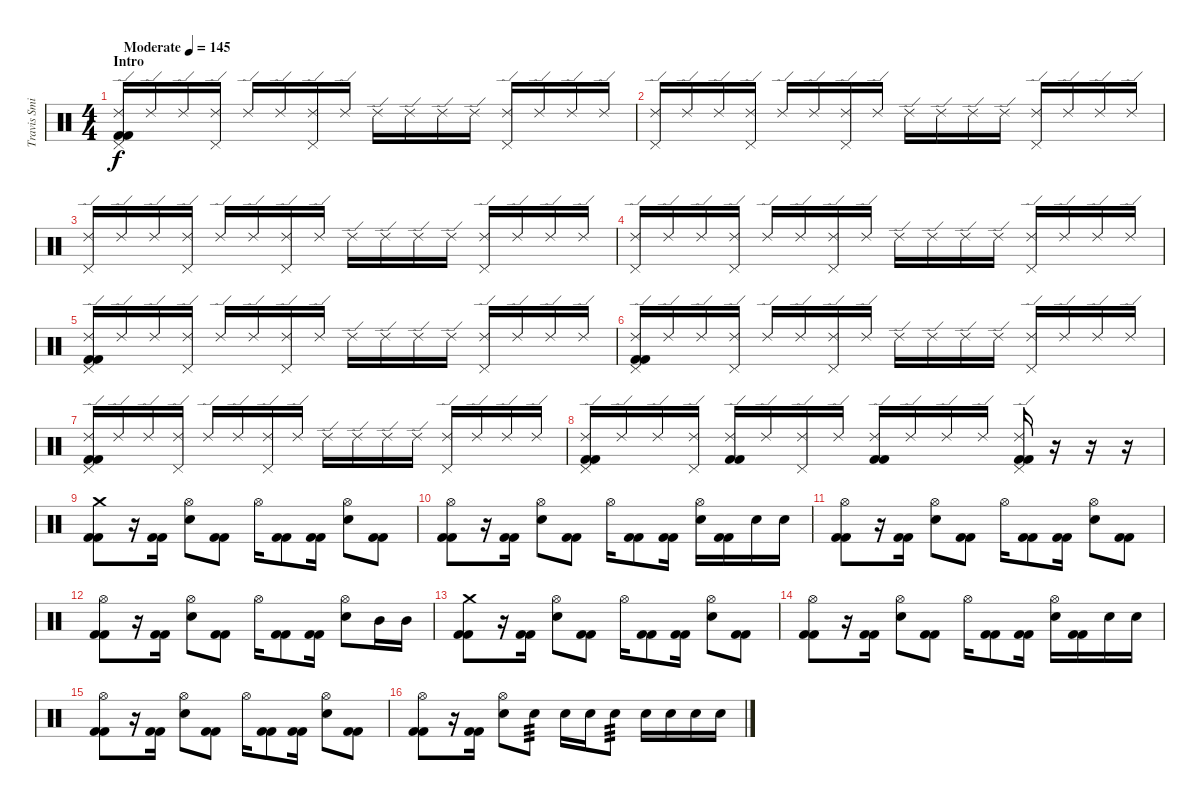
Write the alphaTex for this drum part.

\track ("Travis Smith" "Travis Smi") {instrument percussion}
\staff {score}
\articulation defaults
\ts (4 4)
\section ("" "Intro")
\tempo (145 "Moderate")
\clef neutral
\ks c
("Ride (edge) 2" "Pedal Hi-Hat (hit)" "Kick (hit) 2" "Kick (hit) 2").16{dy f} "Ride (edge) 2".16 "Ride (edge) 2".16 ("Ride (edge) 2" "Pedal Hi-Hat (hit)").16 "Ride (edge) 2".16 "Ride (edge) 2".16 ("Ride (edge) 2" "Pedal Hi-Hat (hit)").16 "Ride (edge) 2".16 "Ride (edge) 2".16 "Ride (edge) 2".16 "Ride (edge) 2".16 "Ride (edge) 2".16 ("Ride (edge) 2" "Pedal Hi-Hat (hit)").16 "Ride (edge) 2".16 "Ride (edge) 2".16 "Ride (edge) 2".16 |
("Ride (edge) 2" "Pedal Hi-Hat (hit)").16 "Ride (edge) 2".16 "Ride (edge) 2".16 ("Ride (edge) 2" "Pedal Hi-Hat (hit)").16 "Ride (edge) 2".16 "Ride (edge) 2".16 ("Ride (edge) 2" "Pedal Hi-Hat (hit)").16 "Ride (edge) 2".16 "Ride (edge) 2".16 "Ride (edge) 2".16 "Ride (edge) 2".16 "Ride (edge) 2".16 ("Ride (edge) 2" "Pedal Hi-Hat (hit)").16 "Ride (edge) 2".16 "Ride (edge) 2".16 "Ride (edge) 2".16 |
("Ride (edge) 2" "Pedal Hi-Hat (hit)").16 "Ride (edge) 2".16 "Ride (edge) 2".16 ("Ride (edge) 2" "Pedal Hi-Hat (hit)").16 "Ride (edge) 2".16 "Ride (edge) 2".16 ("Ride (edge) 2" "Pedal Hi-Hat (hit)").16 "Ride (edge) 2".16 "Ride (edge) 2".16 "Ride (edge) 2".16 "Ride (edge) 2".16 "Ride (edge) 2".16 ("Ride (edge) 2" "Pedal Hi-Hat (hit)").16 "Ride (edge) 2".16 "Ride (edge) 2".16 "Ride (edge) 2".16 |
("Ride (edge) 2" "Pedal Hi-Hat (hit)").16 "Ride (edge) 2".16 "Ride (edge) 2".16 ("Ride (edge) 2" "Pedal Hi-Hat (hit)").16 "Ride (edge) 2".16 "Ride (edge) 2".16 ("Ride (edge) 2" "Pedal Hi-Hat (hit)").16 "Ride (edge) 2".16 "Ride (edge) 2".16 "Ride (edge) 2".16 "Ride (edge) 2".16 "Ride (edge) 2".16 ("Ride (edge) 2" "Pedal Hi-Hat (hit)").16 "Ride (edge) 2".16 "Ride (edge) 2".16 "Ride (edge) 2".16 |
("Ride (edge) 2" "Pedal Hi-Hat (hit)" "Kick (hit) 2" "Kick (hit) 2").16 "Ride (edge) 2".16 "Ride (edge) 2".16 ("Ride (edge) 2" "Pedal Hi-Hat (hit)").16 "Ride (edge) 2".16 "Ride (edge) 2".16 ("Ride (edge) 2" "Pedal Hi-Hat (hit)").16 "Ride (edge) 2".16 "Ride (edge) 2".16 "Ride (edge) 2".16 "Ride (edge) 2".16 "Ride (edge) 2".16 ("Ride (edge) 2" "Pedal Hi-Hat (hit)").16 "Ride (edge) 2".16 "Ride (edge) 2".16 "Ride (edge) 2".16 |
("Ride (edge) 2" "Pedal Hi-Hat (hit)" "Kick (hit) 2" "Kick (hit) 2").16 "Ride (edge) 2".16 "Ride (edge) 2".16 ("Ride (edge) 2" "Pedal Hi-Hat (hit)").16 "Ride (edge) 2".16 "Ride (edge) 2".16 ("Ride (edge) 2" "Pedal Hi-Hat (hit)").16 "Ride (edge) 2".16 "Ride (edge) 2".16 "Ride (edge) 2".16 "Ride (edge) 2".16 "Ride (edge) 2".16 ("Ride (edge) 2" "Pedal Hi-Hat (hit)").16 "Ride (edge) 2".16 "Ride (edge) 2".16 "Ride (edge) 2".16 |
("Ride (edge) 2" "Pedal Hi-Hat (hit)" "Kick (hit) 2" "Kick (hit) 2").16 "Ride (edge) 2".16 "Ride (edge) 2".16 ("Ride (edge) 2" "Pedal Hi-Hat (hit)").16 "Ride (edge) 2".16 "Ride (edge) 2".16 ("Ride (edge) 2" "Pedal Hi-Hat (hit)").16 "Ride (edge) 2".16 "Ride (edge) 2".16 "Ride (edge) 2".16 "Ride (edge) 2".16 "Ride (edge) 2".16 ("Ride (edge) 2" "Pedal Hi-Hat (hit)").16 "Ride (edge) 2".16 "Ride (edge) 2".16 "Ride (edge) 2".16 |
("Ride (edge) 2" "Pedal Hi-Hat (hit)" "Kick (hit) 2" "Kick (hit) 2").16 "Ride (edge) 2".16 "Ride (edge) 2".16 ("Ride (edge) 2" "Pedal Hi-Hat (hit)").16 ("Ride (edge) 2" "Kick (hit) 2" "Kick (hit) 2").16 "Ride (edge) 2".16 ("Ride (edge) 2" "Pedal Hi-Hat (hit)").16 "Ride (edge) 2".16 ("Ride (edge) 2" "Kick (hit) 2" "Kick (hit) 2").16 "Ride (edge) 2".16 "Ride (edge) 2".16 "Ride (edge) 2".16 ("Ride (edge) 2" "Pedal Hi-Hat (hit)" "Kick (hit) 2" "Kick (hit) 2").16 r.16 r.16 r.16 |
("Crash medium (hit)" "Kick (hit) 2" "Kick (hit) 2").8 r.16 ("Kick (hit) 2" "Kick (hit) 2").16 ("Hi-Hat (open)" "Electric Snare (hit)").8 ("Kick (hit) 2" "Kick (hit) 2").8 "Hi-Hat (open)".16 ("Kick (hit) 2" "Kick (hit) 2").8 ("Kick (hit) 2" "Kick (hit) 2").16 ("Hi-Hat (open)" "Electric Snare (hit)").8 ("Kick (hit) 2" "Kick (hit) 2").8 |
("Hi-Hat (open)" "Kick (hit) 2" "Kick (hit) 2").8 r.16 ("Kick (hit) 2" "Kick (hit) 2").16 ("Hi-Hat (open)" "Electric Snare (hit)").8 ("Kick (hit) 2" "Kick (hit) 2").8 "Hi-Hat (open)".16 ("Kick (hit) 2" "Kick (hit) 2").8 ("Kick (hit) 2" "Kick (hit) 2").16 ("Hi-Hat (open)" "Electric Snare (hit)").16 ("Kick (hit) 2" "Kick (hit) 2").16 "Electric Snare (hit)".16 "Electric Snare (hit)".16 |
("Hi-Hat (open)" "Kick (hit) 2" "Kick (hit) 2").8 r.16 ("Kick (hit) 2" "Kick (hit) 2").16 ("Hi-Hat (open)" "Electric Snare (hit)").8 ("Kick (hit) 2" "Kick (hit) 2").8 "Hi-Hat (open)".16 ("Kick (hit) 2" "Kick (hit) 2").8 ("Kick (hit) 2" "Kick (hit) 2").16 ("Hi-Hat (open)" "Electric Snare (hit)").8 ("Kick (hit) 2" "Kick (hit) 2").8 |
("Hi-Hat (open)" "Kick (hit) 2" "Kick (hit) 2").8 r.16 ("Kick (hit) 2" "Kick (hit) 2").16 ("Hi-Hat (open)" "Electric Snare (hit)").8 ("Kick (hit) 2" "Kick (hit) 2").8 "Hi-Hat (open)".16 ("Kick (hit) 2" "Kick (hit) 2").8 ("Kick (hit) 2" "Kick (hit) 2").16 ("Hi-Hat (open)" "Electric Snare (hit)").8 "Mid Tom (hit)".16 "Mid Tom (hit)".16 |
("Crash medium (hit)" "Kick (hit) 2" "Kick (hit) 2").8 r.16 ("Kick (hit) 2" "Kick (hit) 2").16 ("Hi-Hat (open)" "Electric Snare (hit)").8 ("Kick (hit) 2" "Kick (hit) 2").8 "Hi-Hat (open)".16 ("Kick (hit) 2" "Kick (hit) 2").8 ("Kick (hit) 2" "Kick (hit) 2").16 ("Hi-Hat (open)" "Electric Snare (hit)").8 ("Kick (hit) 2" "Kick (hit) 2").8 |
("Hi-Hat (open)" "Kick (hit) 2" "Kick (hit) 2").8 r.16 ("Kick (hit) 2" "Kick (hit) 2").16 ("Hi-Hat (open)" "Electric Snare (hit)").8 ("Kick (hit) 2" "Kick (hit) 2").8 "Hi-Hat (open)".16 ("Kick (hit) 2" "Kick (hit) 2").8 ("Kick (hit) 2" "Kick (hit) 2").16 ("Hi-Hat (open)" "Electric Snare (hit)").16 ("Kick (hit) 2" "Kick (hit) 2").16 "Electric Snare (hit)".16 "Electric Snare (hit)".16 |
("Hi-Hat (open)" "Kick (hit) 2" "Kick (hit) 2").8 r.16 ("Kick (hit) 2" "Kick (hit) 2").16 ("Hi-Hat (open)" "Electric Snare (hit)").8 ("Kick (hit) 2" "Kick (hit) 2").8 "Hi-Hat (open)".16 ("Kick (hit) 2" "Kick (hit) 2").8 ("Kick (hit) 2" "Kick (hit) 2").16 ("Hi-Hat (open)" "Electric Snare (hit)").8 ("Kick (hit) 2" "Kick (hit) 2").8 |
("Hi-Hat (open)" "Kick (hit) 2" "Kick (hit) 2").8 r.16 ("Kick (hit) 2" "Kick (hit) 2").16 ("Hi-Hat (open)" "Electric Snare (hit)").8 "Electric Snare (hit)".8{tp 3} "Electric Snare (hit)".16 "Electric Snare (hit)".16 "Electric Snare (hit)".8{tp 3} "Electric Snare (hit)".16 "Electric Snare (hit)".16 "Electric Snare (hit)".16 "Electric Snare (hit)".16
